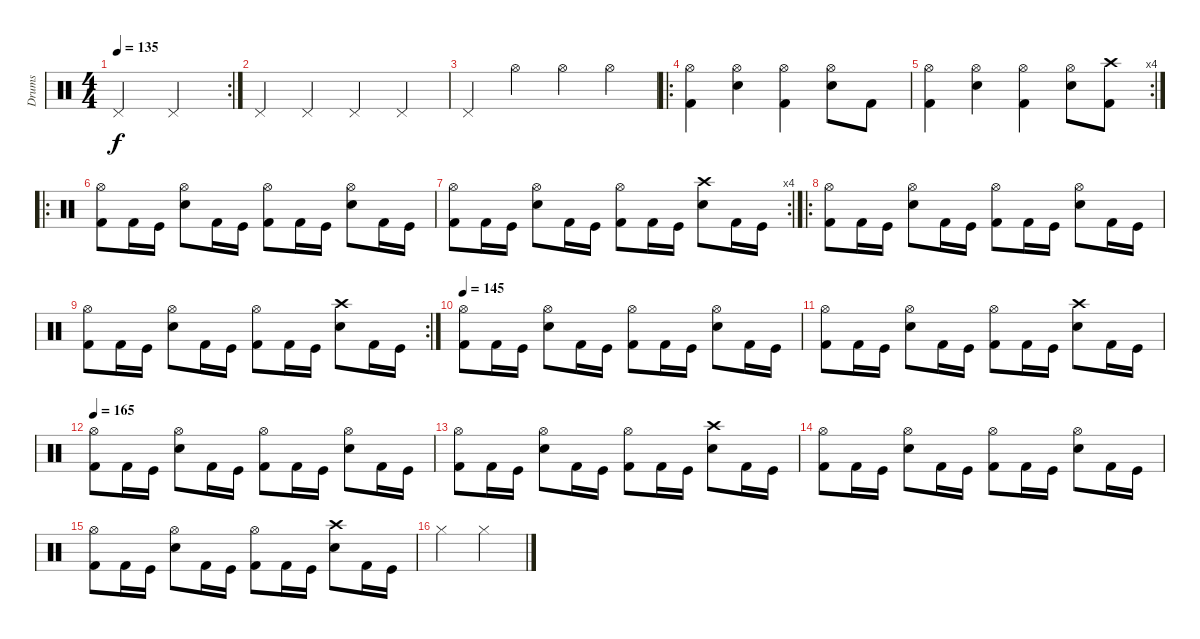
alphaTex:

\track ("Drums" "Drums") {instrument percussion}
\staff {score}
\articulation defaults
\rc 2
\ts (4 4)
\tempo 135
\clef neutral
\ks c "Pedal Hi-Hat (hit)".2{dy f} "Pedal Hi-Hat (hit)".2
|
"Pedal Hi-Hat (hit)".4 "Pedal Hi-Hat (hit)".4 "Pedal Hi-Hat (hit)".4 "Pedal Hi-Hat (hit)".4 |
"Pedal Hi-Hat (hit)".4 "Hi-Hat (open)".4 "Hi-Hat (open)".4 "Hi-Hat (open)".4 |
\ro
("Hi-Hat (open)" "Kick (hit) 2").4 ("Hi-Hat (open)" "Electric Snare (hit)").4 ("Hi-Hat (open)" "Kick (hit) 2").4 ("Hi-Hat (open)" "Electric Snare (hit)").8 "Kick (hit) 2".8 |
\rc 4
("Hi-Hat (open)" "Kick (hit) 2").4 ("Hi-Hat (open)" "Electric Snare (hit)").4 ("Hi-Hat (open)" "Kick (hit) 2").4 ("Hi-Hat (open)" "Electric Snare (hit)").8 ("Crash high (hit)" "Kick (hit) 2").8 |
\ro
("Hi-Hat (open)" "Kick (hit) 2").8 "Kick (hit) 2".16 "Kick (hit)".16 ("Hi-Hat (open)" "Snare (hit) 2").8 "Kick (hit) 2".16 "Kick (hit)".16 ("Hi-Hat (open)" "Kick (hit) 2").8 "Kick (hit) 2".16 "Kick (hit)".16 ("Hi-Hat (open)" "Snare (hit) 2").8 "Kick (hit) 2".16 "Kick (hit)".16 |
\rc 4
("Hi-Hat (open)" "Kick (hit) 2").8 "Kick (hit) 2".16 "Kick (hit)".16 ("Hi-Hat (open)" "Snare (hit) 2").8 "Kick (hit) 2".16 "Kick (hit)".16 ("Hi-Hat (open)" "Kick (hit) 2").8 "Kick (hit) 2".16 "Kick (hit)".16 ("Crash high (hit)" "Snare (hit) 2").8 "Kick (hit) 2".16 "Kick (hit)".16 |
\ro
("Hi-Hat (open)" "Kick (hit) 2").8 "Kick (hit) 2".16 "Kick (hit)".16 ("Hi-Hat (open)" "Snare (hit) 2").8 "Kick (hit) 2".16 "Kick (hit)".16 ("Hi-Hat (open)" "Kick (hit) 2").8 "Kick (hit) 2".16 "Kick (hit)".16 ("Hi-Hat (open)" "Snare (hit) 2").8 "Kick (hit) 2".16 "Kick (hit)".16 |
\rc 2
("Hi-Hat (open)" "Kick (hit) 2").8 "Kick (hit) 2".16 "Kick (hit)".16 ("Hi-Hat (open)" "Snare (hit) 2").8 "Kick (hit) 2".16 "Kick (hit)".16 ("Hi-Hat (open)" "Kick (hit) 2").8 "Kick (hit) 2".16 "Kick (hit)".16 ("Crash high (hit)" "Snare (hit) 2").8 "Kick (hit) 2".16 "Kick (hit)".16 |
\tempo 145
("Hi-Hat (open)" "Kick (hit) 2").8 "Kick (hit) 2".16 "Kick (hit)".16 ("Hi-Hat (open)" "Snare (hit) 2").8 "Kick (hit) 2".16 "Kick (hit)".16 ("Hi-Hat (open)" "Kick (hit) 2").8 "Kick (hit) 2".16 "Kick (hit)".16 ("Hi-Hat (open)" "Snare (hit) 2").8 "Kick (hit) 2".16 "Kick (hit)".16 |
("Hi-Hat (open)" "Kick (hit) 2").8 "Kick (hit) 2".16 "Kick (hit)".16 ("Hi-Hat (open)" "Snare (hit) 2").8 "Kick (hit) 2".16 "Kick (hit)".16 ("Hi-Hat (open)" "Kick (hit) 2").8 "Kick (hit) 2".16 "Kick (hit)".16 ("Crash high (hit)" "Snare (hit) 2").8 "Kick (hit) 2".16 "Kick (hit)".16 |
\tempo 165
("Hi-Hat (open)" "Kick (hit) 2").8 "Kick (hit) 2".16 "Kick (hit)".16 ("Hi-Hat (open)" "Snare (hit) 2").8 "Kick (hit) 2".16 "Kick (hit)".16 ("Hi-Hat (open)" "Kick (hit) 2").8 "Kick (hit) 2".16 "Kick (hit)".16 ("Hi-Hat (open)" "Snare (hit) 2").8 "Kick (hit) 2".16 "Kick (hit)".16 |
("Hi-Hat (open)" "Kick (hit) 2").8 "Kick (hit) 2".16 "Kick (hit)".16 ("Hi-Hat (open)" "Snare (hit) 2").8 "Kick (hit) 2".16 "Kick (hit)".16 ("Hi-Hat (open)" "Kick (hit) 2").8 "Kick (hit) 2".16 "Kick (hit)".16 ("Crash high (hit)" "Snare (hit) 2").8 "Kick (hit) 2".16 "Kick (hit)".16 |
("Hi-Hat (open)" "Kick (hit) 2").8 "Kick (hit) 2".16 "Kick (hit)".16 ("Hi-Hat (open)" "Snare (hit) 2").8 "Kick (hit) 2".16 "Kick (hit)".16 ("Hi-Hat (open)" "Kick (hit) 2").8 "Kick (hit) 2".16 "Kick (hit)".16 ("Hi-Hat (open)" "Snare (hit) 2").8 "Kick (hit) 2".16 "Kick (hit)".16 |
("Hi-Hat (open)" "Kick (hit) 2").8 "Kick (hit) 2".16 "Kick (hit)".16 ("Hi-Hat (open)" "Snare (hit) 2").8 "Kick (hit) 2".16 "Kick (hit)".16 ("Hi-Hat (open)" "Kick (hit) 2").8 "Kick (hit) 2".16 "Kick (hit)".16 ("Crash high (hit)" "Snare (hit) 2").8 "Kick (hit) 2".16 "Kick (hit)".16 |
"Hi-Hat (closed)".2 "Hi-Hat (closed)".2
